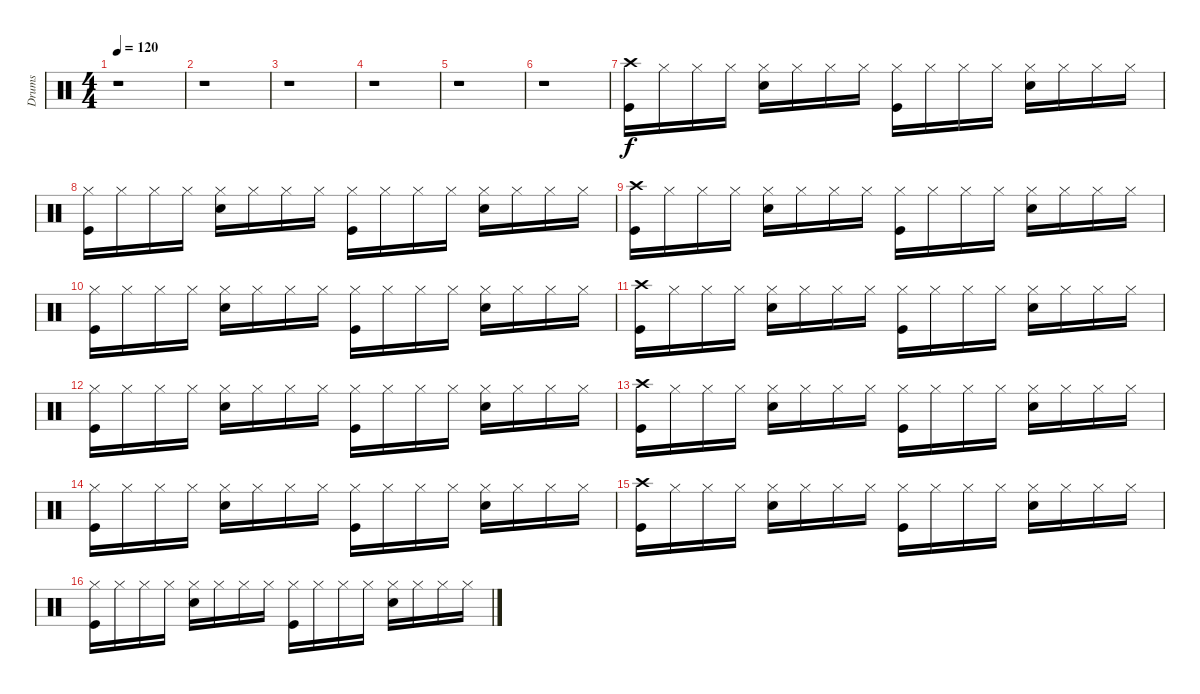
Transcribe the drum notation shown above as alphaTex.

\track ("Drums" "Drums") {instrument percussion}
\staff {score}
\articulation defaults
\ts (4 4)
\tempo 120
\clef neutral
\ks c
r.1{dy f} |
r.1 |
r.1 |
r.1 |
r.1 |
r.1 |
("Crash high (hit)" "Kick (hit)").16 "Hi-Hat (closed)".16 "Hi-Hat (closed)".16 "Hi-Hat (closed)".16 ("Hi-Hat (closed)" "Electric Snare (hit)").16 "Hi-Hat (closed)".16 "Hi-Hat (closed)".16 "Hi-Hat (closed)".16 ("Hi-Hat (closed)" "Kick (hit)").16 "Hi-Hat (closed)".16 "Hi-Hat (closed)".16 "Hi-Hat (closed)".16 ("Hi-Hat (closed)" "Electric Snare (hit)").16 "Hi-Hat (closed)".16 "Hi-Hat (closed)".16 "Hi-Hat (closed)".16 |
("Hi-Hat (closed)" "Kick (hit)").16 "Hi-Hat (closed)".16 "Hi-Hat (closed)".16 "Hi-Hat (closed)".16 ("Hi-Hat (closed)" "Electric Snare (hit)").16 "Hi-Hat (closed)".16 "Hi-Hat (closed)".16 "Hi-Hat (closed)".16 ("Hi-Hat (closed)" "Kick (hit)").16 "Hi-Hat (closed)".16 "Hi-Hat (closed)".16 "Hi-Hat (closed)".16 ("Hi-Hat (closed)" "Electric Snare (hit)").16 "Hi-Hat (closed)".16 "Hi-Hat (closed)".16 "Hi-Hat (closed)".16 |
("Crash high (hit)" "Kick (hit)").16 "Hi-Hat (closed)".16 "Hi-Hat (closed)".16 "Hi-Hat (closed)".16 ("Hi-Hat (closed)" "Electric Snare (hit)").16 "Hi-Hat (closed)".16 "Hi-Hat (closed)".16 "Hi-Hat (closed)".16 ("Hi-Hat (closed)" "Kick (hit)").16 "Hi-Hat (closed)".16 "Hi-Hat (closed)".16 "Hi-Hat (closed)".16 ("Hi-Hat (closed)" "Electric Snare (hit)").16 "Hi-Hat (closed)".16 "Hi-Hat (closed)".16 "Hi-Hat (closed)".16 |
("Hi-Hat (closed)" "Kick (hit)").16 "Hi-Hat (closed)".16 "Hi-Hat (closed)".16 "Hi-Hat (closed)".16 ("Hi-Hat (closed)" "Electric Snare (hit)").16 "Hi-Hat (closed)".16 "Hi-Hat (closed)".16 "Hi-Hat (closed)".16 ("Hi-Hat (closed)" "Kick (hit)").16 "Hi-Hat (closed)".16 "Hi-Hat (closed)".16 "Hi-Hat (closed)".16 ("Hi-Hat (closed)" "Electric Snare (hit)").16 "Hi-Hat (closed)".16 "Hi-Hat (closed)".16 "Hi-Hat (closed)".16 |
("Crash high (hit)" "Kick (hit)").16 "Hi-Hat (closed)".16 "Hi-Hat (closed)".16 "Hi-Hat (closed)".16 ("Hi-Hat (closed)" "Electric Snare (hit)").16 "Hi-Hat (closed)".16 "Hi-Hat (closed)".16 "Hi-Hat (closed)".16 ("Hi-Hat (closed)" "Kick (hit)").16 "Hi-Hat (closed)".16 "Hi-Hat (closed)".16 "Hi-Hat (closed)".16 ("Hi-Hat (closed)" "Electric Snare (hit)").16 "Hi-Hat (closed)".16 "Hi-Hat (closed)".16 "Hi-Hat (closed)".16 |
("Hi-Hat (closed)" "Kick (hit)").16 "Hi-Hat (closed)".16 "Hi-Hat (closed)".16 "Hi-Hat (closed)".16 ("Hi-Hat (closed)" "Electric Snare (hit)").16 "Hi-Hat (closed)".16 "Hi-Hat (closed)".16 "Hi-Hat (closed)".16 ("Hi-Hat (closed)" "Kick (hit)").16 "Hi-Hat (closed)".16 "Hi-Hat (closed)".16 "Hi-Hat (closed)".16 ("Hi-Hat (closed)" "Electric Snare (hit)").16 "Hi-Hat (closed)".16 "Hi-Hat (closed)".16 "Hi-Hat (closed)".16 |
("Crash high (hit)" "Kick (hit)").16 "Hi-Hat (closed)".16 "Hi-Hat (closed)".16 "Hi-Hat (closed)".16 ("Hi-Hat (closed)" "Electric Snare (hit)").16 "Hi-Hat (closed)".16 "Hi-Hat (closed)".16 "Hi-Hat (closed)".16 ("Hi-Hat (closed)" "Kick (hit)").16 "Hi-Hat (closed)".16 "Hi-Hat (closed)".16 "Hi-Hat (closed)".16 ("Hi-Hat (closed)" "Electric Snare (hit)").16 "Hi-Hat (closed)".16 "Hi-Hat (closed)".16 "Hi-Hat (closed)".16 |
("Hi-Hat (closed)" "Kick (hit)").16 "Hi-Hat (closed)".16 "Hi-Hat (closed)".16 "Hi-Hat (closed)".16 ("Hi-Hat (closed)" "Electric Snare (hit)").16 "Hi-Hat (closed)".16 "Hi-Hat (closed)".16 "Hi-Hat (closed)".16 ("Hi-Hat (closed)" "Kick (hit)").16 "Hi-Hat (closed)".16 "Hi-Hat (closed)".16 "Hi-Hat (closed)".16 ("Hi-Hat (closed)" "Electric Snare (hit)").16 "Hi-Hat (closed)".16 "Hi-Hat (closed)".16 "Hi-Hat (closed)".16 |
("Crash high (hit)" "Kick (hit)").16 "Hi-Hat (closed)".16 "Hi-Hat (closed)".16 "Hi-Hat (closed)".16 ("Hi-Hat (closed)" "Electric Snare (hit)").16 "Hi-Hat (closed)".16 "Hi-Hat (closed)".16 "Hi-Hat (closed)".16 ("Hi-Hat (closed)" "Kick (hit)").16 "Hi-Hat (closed)".16 "Hi-Hat (closed)".16 "Hi-Hat (closed)".16 ("Hi-Hat (closed)" "Electric Snare (hit)").16 "Hi-Hat (closed)".16 "Hi-Hat (closed)".16 "Hi-Hat (closed)".16 |
("Hi-Hat (closed)" "Kick (hit)").16 "Hi-Hat (closed)".16 "Hi-Hat (closed)".16 "Hi-Hat (closed)".16 ("Hi-Hat (closed)" "Electric Snare (hit)").16 "Hi-Hat (closed)".16 "Hi-Hat (closed)".16 "Hi-Hat (closed)".16 ("Hi-Hat (closed)" "Kick (hit)").16 "Hi-Hat (closed)".16 "Hi-Hat (closed)".16 "Hi-Hat (closed)".16 ("Hi-Hat (closed)" "Electric Snare (hit)").16 "Hi-Hat (closed)".16 "Hi-Hat (closed)".16 "Hi-Hat (closed)".16
